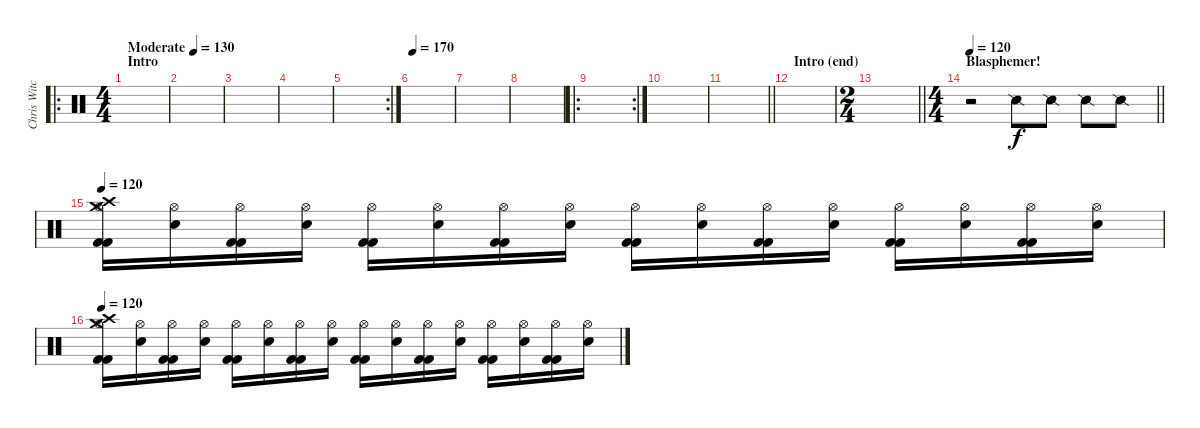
\track ("Chris Witchhunter (R.I.P.)" "Chris Witc") {instrument percussion}
\staff {score}
\articulation defaults
\ro
\ts (4 4)
\section ("" "Intro")
\tempo (130 "Moderate")
\tempo 170
\tempo (130 "Moderate")
\clef neutral
\ks c
|
|
|
|
\rc 2
|
\tempo 170
|
|
|
\ro
\rc 2
|
|
\barLineRight lightlight
|
\section ("" "Intro (end)")
|
\ts (2 4)
\barLineRight lightlight
|
\ts (4 4)
\section ("" "Blasphemer!")
\tempo 120
\barLineRight lightlight
r.2 "Snare (side stick) 2".8 "Snare (side stick) 2".8 "Snare (side stick) 2".8 "Snare (side stick) 2".8 |
\section ("" "")
\tempo 120
("Crash medium (hit)" "Crash high (hit)" "Hi-Hat (open)" "Kick (hit) 2" "Kick (hit) 2").16 ("Hi-Hat (open)" "Electric Snare (hit)").16 ("Hi-Hat (open)" "Kick (hit) 2" "Kick (hit) 2").16 ("Hi-Hat (open)" "Electric Snare (hit)").16 ("Hi-Hat (open)" "Kick (hit) 2" "Kick (hit) 2").16 ("Hi-Hat (open)" "Electric Snare (hit)").16 ("Hi-Hat (open)" "Kick (hit) 2" "Kick (hit) 2").16 ("Hi-Hat (open)" "Electric Snare (hit)").16 ("Hi-Hat (open)" "Kick (hit) 2" "Kick (hit) 2").16 ("Hi-Hat (open)" "Electric Snare (hit)").16 ("Hi-Hat (open)" "Kick (hit) 2" "Kick (hit) 2").16 ("Hi-Hat (open)" "Electric Snare (hit)").16 ("Hi-Hat (open)" "Kick (hit) 2" "Kick (hit) 2").16 ("Hi-Hat (open)" "Electric Snare (hit)").16 ("Hi-Hat (open)" "Kick (hit) 2" "Kick (hit) 2").16 ("Hi-Hat (open)" "Electric Snare (hit)").16 |
\tempo 120
("Crash medium (hit)" "Crash high (hit)" "Hi-Hat (open)" "Kick (hit) 2" "Kick (hit) 2").16 ("Hi-Hat (open)" "Electric Snare (hit)").16 ("Hi-Hat (open)" "Kick (hit) 2" "Kick (hit) 2").16 ("Hi-Hat (open)" "Electric Snare (hit)").16 ("Hi-Hat (open)" "Kick (hit) 2" "Kick (hit) 2").16 ("Hi-Hat (open)" "Electric Snare (hit)").16 ("Hi-Hat (open)" "Kick (hit) 2" "Kick (hit) 2").16 ("Hi-Hat (open)" "Electric Snare (hit)").16 ("Hi-Hat (open)" "Kick (hit) 2" "Kick (hit) 2").16 ("Hi-Hat (open)" "Electric Snare (hit)").16 ("Hi-Hat (open)" "Kick (hit) 2" "Kick (hit) 2").16 ("Hi-Hat (open)" "Electric Snare (hit)").16 ("Hi-Hat (open)" "Kick (hit) 2" "Kick (hit) 2").16 ("Hi-Hat (open)" "Electric Snare (hit)").16 ("Hi-Hat (open)" "Kick (hit) 2" "Kick (hit) 2").16 ("Hi-Hat (open)" "Electric Snare (hit)").16
